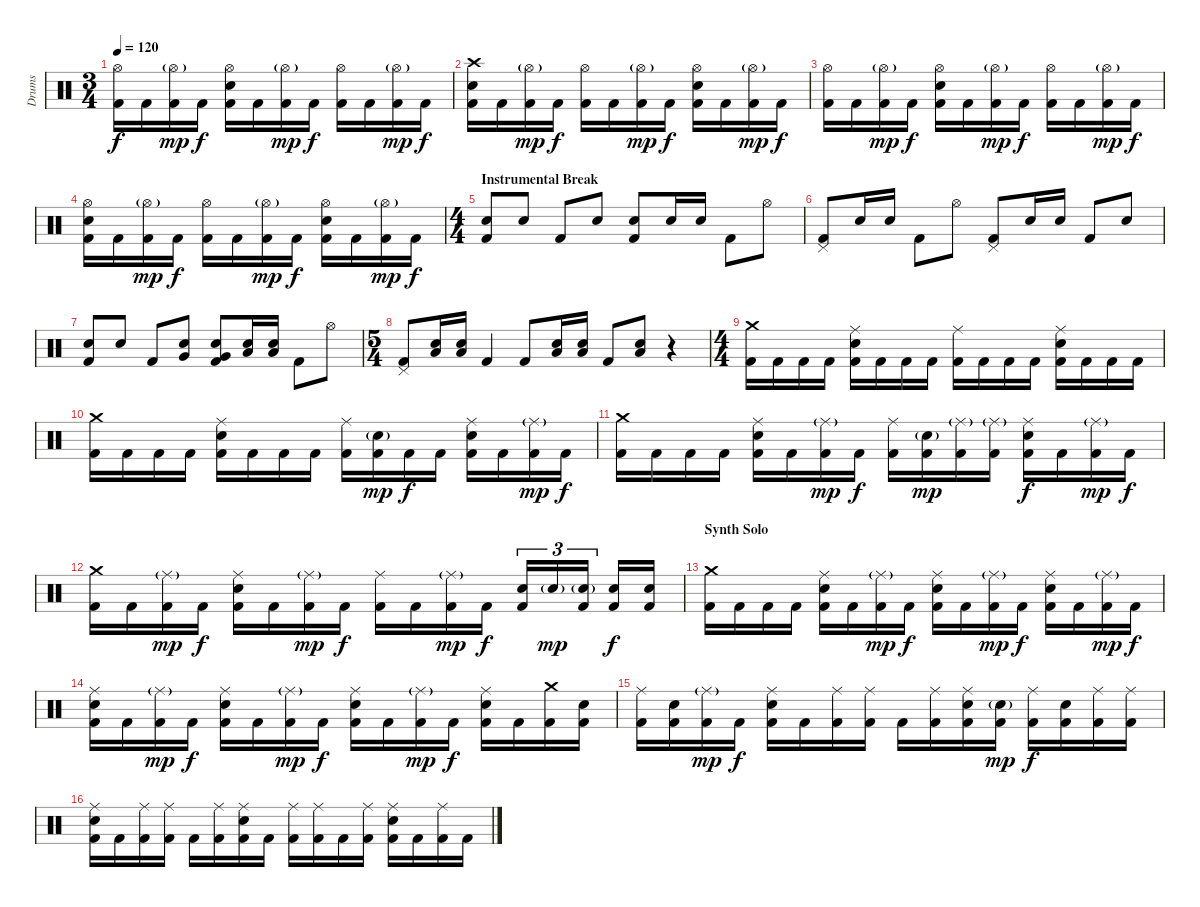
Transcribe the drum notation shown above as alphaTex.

\track ("Drums" "Drums") {instrument percussion}
\staff {score}
\articulation defaults
\ts (3 4)
\tempo 120
\clef neutral
\ks c
("Hi-Hat (open)" "Kick (hit) 2").16{dy f} "Kick (hit) 2".16 ("Hi-Hat (open)"{g} "Kick (hit) 2").16{dy mp} "Kick (hit) 2".16{dy f} ("Hi-Hat (open)" "Snare (hit) 2" "Kick (hit) 2").16 "Kick (hit) 2".16 ("Hi-Hat (open)"{g} "Kick (hit) 2").16{dy mp} "Kick (hit) 2".16{dy f} ("Hi-Hat (open)" "Kick (hit) 2").16 "Kick (hit) 2".16 ("Hi-Hat (open)"{g} "Kick (hit) 2").16{dy mp} "Kick (hit) 2".16{dy f} |
("Crash high (hit)" "Snare (hit) 2" "Kick (hit) 2").16 "Kick (hit) 2".16 ("Hi-Hat (open)"{g} "Kick (hit) 2").16{dy mp} "Kick (hit) 2".16{dy f} ("Hi-Hat (open)" "Kick (hit) 2").16 "Kick (hit) 2".16 ("Hi-Hat (open)"{g} "Kick (hit) 2").16{dy mp} "Kick (hit) 2".16{dy f} ("Hi-Hat (open)" "Snare (hit) 2" "Kick (hit) 2").16 "Kick (hit) 2".16 ("Hi-Hat (open)"{g} "Kick (hit) 2").16{dy mp} "Kick (hit) 2".16{dy f} |
("Hi-Hat (open)" "Kick (hit) 2").16 "Kick (hit) 2".16 ("Hi-Hat (open)"{g} "Kick (hit) 2").16{dy mp} "Kick (hit) 2".16{dy f} ("Hi-Hat (open)" "Snare (hit) 2" "Kick (hit) 2").16 "Kick (hit) 2".16 ("Hi-Hat (open)"{g} "Kick (hit) 2").16{dy mp} "Kick (hit) 2".16{dy f} ("Hi-Hat (open)" "Kick (hit) 2").16 "Kick (hit) 2".16 ("Hi-Hat (open)"{g} "Kick (hit) 2").16{dy mp} "Kick (hit) 2".16{dy f} |
("Hi-Hat (open)" "Snare (hit) 2" "Kick (hit) 2").16 "Kick (hit) 2".16 ("Hi-Hat (open)"{g} "Kick (hit) 2").16{dy mp} "Kick (hit) 2".16{dy f} ("Hi-Hat (open)" "Kick (hit) 2").16 "Kick (hit) 2".16 ("Hi-Hat (open)"{g} "Kick (hit) 2").16{dy mp} "Kick (hit) 2".16{dy f} ("Hi-Hat (open)" "Snare (hit) 2" "Kick (hit) 2").16 "Kick (hit) 2".16 ("Hi-Hat (open)"{g} "Kick (hit) 2").16{dy mp} "Kick (hit) 2".16{dy f} |
\ts (4 4)
\section ("" "Instrumental Break")
("Snare (hit) 2" "Kick (hit) 2").8 "Snare (hit) 2".8 "Kick (hit) 2".8 "Snare (hit) 2".8 ("Snare (hit) 2" "Kick (hit) 2").8 "Snare (hit) 2".16 "Snare (hit) 2".16 "Kick (hit) 2".8 "Hi-Hat (open)".8 |
("Pedal Hi-Hat (hit)" "Kick (hit) 2").8 "Snare (hit) 2".16 "Snare (hit) 2".16 "Kick (hit) 2".8 "Hi-Hat (open)".8 ("Pedal Hi-Hat (hit)" "Kick (hit) 2").8 "Snare (hit) 2".16 "Snare (hit) 2".16 "Kick (hit) 2".8 "Snare (hit) 2".8 |
("Snare (hit) 2" "Kick (hit) 2").8 "Snare (hit) 2".8 "Kick (hit) 2".8 ("Very Low Tom (hit)" "Snare (hit) 2").8 ("Very Low Tom (hit)" "Snare (hit) 2" "Kick (hit) 2").8 ("Low Floor Tom (hit)" "Snare (hit) 2").16 ("Low Floor Tom (hit)" "Snare (hit) 2").16 "Kick (hit) 2".8 "Hi-Hat (open)".8 |
\ts (5 4)
("Pedal Hi-Hat (hit)" "Kick (hit) 2").8 ("Low Floor Tom (hit)" "Snare (hit) 2").16 ("Low Floor Tom (hit)" "Snare (hit) 2").16 "Kick (hit) 2".4 "Kick (hit) 2".8 ("Low Floor Tom (hit)" "Snare (hit) 2").16 ("Low Floor Tom (hit)" "Snare (hit) 2").16 "Kick (hit) 2".8 ("Low Floor Tom (hit)" "Snare (hit) 2").8 r.4 |
\ts (4 4)
("Crash medium (hit)" "Kick (hit) 2").16 "Kick (hit) 2".16 "Kick (hit) 2".16 "Kick (hit) 2".16 ("Ride (middle)" "Snare (hit) 2" "Kick (hit) 2").16 "Kick (hit) 2".16 "Kick (hit) 2".16 "Kick (hit) 2".16 ("Ride (middle)" "Kick (hit) 2").16 "Kick (hit) 2".16 "Kick (hit) 2".16 "Kick (hit) 2".16 ("Ride (middle)" "Snare (hit) 2" "Kick (hit) 2").16 "Kick (hit) 2".16 "Kick (hit) 2".16 "Kick (hit) 2".16 |
("Crash medium (hit)" "Kick (hit) 2").16 "Kick (hit) 2".16 "Kick (hit) 2".16 "Kick (hit) 2".16 ("Ride (middle)" "Snare (hit) 2" "Kick (hit) 2").16 "Kick (hit) 2".16 "Kick (hit) 2".16 "Kick (hit) 2".16 ("Ride (middle)" "Kick (hit) 2").16 ("Snare (hit) 2"{g} "Kick (hit) 2").16{dy mp} "Kick (hit) 2".16{dy f} "Kick (hit) 2".16 ("Ride (middle)" "Snare (hit) 2" "Kick (hit) 2").16 "Kick (hit) 2".16 ("Ride (middle)"{g} "Kick (hit) 2").16{dy mp} "Kick (hit) 2".16{dy f} |
("Crash medium (hit)" "Kick (hit) 2").16 "Kick (hit) 2".16 "Kick (hit) 2".16 "Kick (hit) 2".16 ("Ride (middle)" "Snare (hit) 2" "Kick (hit) 2").16 "Kick (hit) 2".16 ("Ride (middle)"{g} "Kick (hit) 2").16{dy mp} "Kick (hit) 2".16{dy f} ("Ride (middle)" "Kick (hit) 2").16 ("Snare (hit) 2"{g} "Kick (hit) 2").16{dy mp} ("Ride (middle)"{g} "Kick (hit) 2").16 ("Ride (middle)"{g} "Kick (hit) 2").16 ("Ride (middle)" "Snare (hit) 2" "Kick (hit) 2").16{dy f} "Kick (hit) 2".16 ("Ride (middle)"{g} "Kick (hit) 2").16{dy mp} "Kick (hit) 2".16{dy f} |
("Crash medium (hit)" "Kick (hit) 2").16 "Kick (hit) 2".16 ("Ride (middle)"{g} "Kick (hit) 2").16{dy mp} "Kick (hit) 2".16{dy f} ("Ride (middle)" "Snare (hit) 2" "Kick (hit) 2").16 "Kick (hit) 2".16 ("Ride (middle)"{g} "Kick (hit) 2").16{dy mp} "Kick (hit) 2".16{dy f} ("Ride (middle)" "Kick (hit) 2").16 "Kick (hit) 2".16 ("Ride (middle)"{g} "Kick (hit) 2").16{dy mp} "Kick (hit) 2".16{dy f} ("Snare (hit) 2" "Kick (hit) 2").16{tu (3 2)} "Snare (hit) 2"{g}.16{tu (3 2) dy mp} ("Snare (hit) 2"{g} "Kick (hit) 2").16{tu (3 2)} ("Snare (hit) 2" "Kick (hit) 2").16{dy f} ("Snare (hit) 2" "Kick (hit) 2").16 |
\section ("" "Synth Solo")
("Crash medium (hit)" "Kick (hit) 2").16 "Kick (hit) 2".16 "Kick (hit) 2".16 "Kick (hit) 2".16 ("Ride (middle)" "Snare (hit) 2" "Kick (hit) 2").16 "Kick (hit) 2".16 ("Ride (middle)"{g} "Kick (hit) 2").16{dy mp} "Kick (hit) 2".16{dy f} ("Ride (middle)" "Snare (hit) 2" "Kick (hit) 2").16 "Kick (hit) 2".16 ("Ride (middle)"{g} "Kick (hit) 2").16{dy mp} "Kick (hit) 2".16{dy f} ("Ride (middle)" "Snare (hit) 2" "Kick (hit) 2").16 "Kick (hit) 2".16 ("Ride (middle)"{g} "Kick (hit) 2").16{dy mp} "Kick (hit) 2".16{dy f} |
("Ride (middle)" "Snare (hit) 2" "Kick (hit) 2").16 "Kick (hit) 2".16 ("Ride (middle)"{g} "Kick (hit) 2").16{dy mp} "Kick (hit) 2".16{dy f} ("Ride (middle)" "Snare (hit) 2" "Kick (hit) 2").16 "Kick (hit) 2".16 ("Ride (middle)"{g} "Kick (hit) 2").16{dy mp} "Kick (hit) 2".16{dy f} ("Ride (middle)" "Snare (hit) 2" "Kick (hit) 2").16 "Kick (hit) 2".16 ("Ride (middle)"{g} "Kick (hit) 2").16{dy mp} "Kick (hit) 2".16{dy f} ("Ride (middle)" "Snare (hit) 2" "Kick (hit) 2").16 "Kick (hit) 2".16 ("Crash medium (hit)" "Kick (hit) 2").16 ("Snare (hit) 2" "Kick (hit) 2").16 |
("Ride (middle)" "Kick (hit) 2").16 ("Snare (hit) 2" "Kick (hit) 2").16 ("Ride (middle)"{g} "Kick (hit) 2").16{dy mp} "Kick (hit) 2".16{dy f} ("Ride (middle)" "Snare (hit) 2" "Kick (hit) 2").16 "Kick (hit) 2".16 ("Ride (middle)" "Kick (hit) 2").16 ("Ride (middle)" "Kick (hit) 2").16 "Kick (hit) 2".16 ("Ride (middle)" "Kick (hit) 2").16 ("Ride (middle)" "Snare (hit) 2" "Kick (hit) 2").16 ("Snare (hit) 2"{g} "Kick (hit) 2").16{dy mp} ("Ride (middle)" "Kick (hit) 2").16{dy f} ("Snare (hit) 2" "Kick (hit) 2").16 ("Ride (middle)" "Kick (hit) 2").16 ("Ride (middle)" "Kick (hit) 2").16 |
("Ride (middle)" "Snare (hit) 2" "Kick (hit) 2").16 "Kick (hit) 2".16 ("Ride (middle)" "Kick (hit) 2").16 ("Ride (middle)" "Kick (hit) 2").16 "Kick (hit) 2".16 ("Ride (middle)" "Kick (hit) 2").16 ("Ride (middle)" "Snare (hit) 2" "Kick (hit) 2").16 "Kick (hit) 2".16 ("Ride (middle)" "Kick (hit) 2").16 ("Ride (middle)" "Kick (hit) 2").16 "Kick (hit) 2".16 ("Ride (middle)" "Kick (hit) 2").16 ("Ride (middle)" "Snare (hit) 2" "Kick (hit) 2").16 "Kick (hit) 2".16 ("Ride (middle)" "Kick (hit) 2").16 "Kick (hit) 2".16
